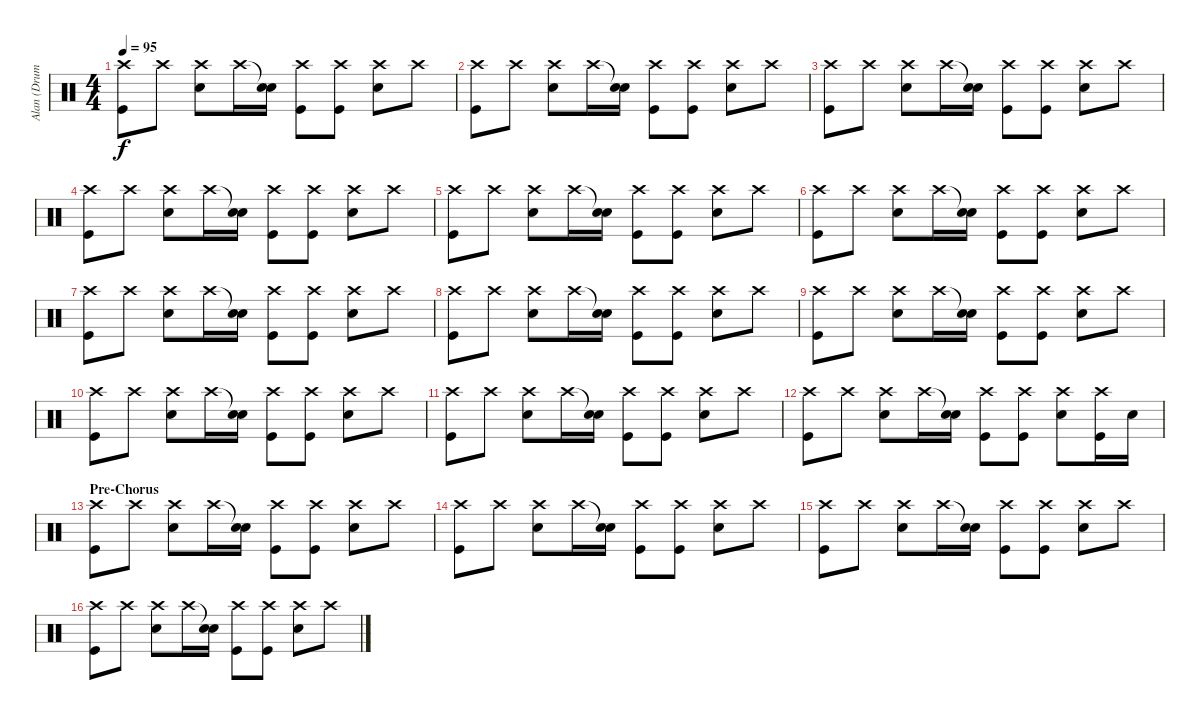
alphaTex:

\track ("Alan (Drums)" "Alan (Drum") {instrument percussion}
\staff {score}
\articulation defaults
\ts (4 4)
\tempo 95
\clef neutral
\ks c
("Crash high (hit)" "Kick (hit)").8{dy f} "Crash high (hit)".8 ("Crash high (hit)" "Electric Snare (hit)").8 "Crash high (hit)".16 ("Snare (hit)"{t} "Electric Snare (hit)").16 ("Crash high (hit)" "Kick (hit)").8 ("Crash high (hit)" "Kick (hit)").8 ("Crash high (hit)" "Electric Snare (hit)").8 "Crash high (hit)".8 |
("Crash high (hit)" "Kick (hit)").8 "Crash high (hit)".8 ("Crash high (hit)" "Electric Snare (hit)").8 "Crash high (hit)".16 ("Snare (hit)"{t} "Electric Snare (hit)").16 ("Crash high (hit)" "Kick (hit)").8 ("Crash high (hit)" "Kick (hit)").8 ("Crash high (hit)" "Electric Snare (hit)").8 "Crash high (hit)".8 |
("Crash high (hit)" "Kick (hit)").8 "Crash high (hit)".8 ("Crash high (hit)" "Electric Snare (hit)").8 "Crash high (hit)".16 ("Snare (hit)"{t} "Electric Snare (hit)").16 ("Crash high (hit)" "Kick (hit)").8 ("Crash high (hit)" "Kick (hit)").8 ("Crash high (hit)" "Electric Snare (hit)").8 "Crash high (hit)".8 |
("Crash high (hit)" "Kick (hit)").8 "Crash high (hit)".8 ("Crash high (hit)" "Electric Snare (hit)").8 "Crash high (hit)".16 ("Snare (hit)"{t} "Electric Snare (hit)").16 ("Crash high (hit)" "Kick (hit)").8 ("Crash high (hit)" "Kick (hit)").8 ("Crash high (hit)" "Electric Snare (hit)").8 "Crash high (hit)".8 |
("Crash high (hit)" "Kick (hit)").8 "Crash high (hit)".8 ("Crash high (hit)" "Electric Snare (hit)").8 "Crash high (hit)".16 ("Snare (hit)"{t} "Electric Snare (hit)").16 ("Crash high (hit)" "Kick (hit)").8 ("Crash high (hit)" "Kick (hit)").8 ("Crash high (hit)" "Electric Snare (hit)").8 "Crash high (hit)".8 |
("Crash high (hit)" "Kick (hit)").8 "Crash high (hit)".8 ("Crash high (hit)" "Electric Snare (hit)").8 "Crash high (hit)".16 ("Snare (hit)"{t} "Electric Snare (hit)").16 ("Crash high (hit)" "Kick (hit)").8 ("Crash high (hit)" "Kick (hit)").8 ("Crash high (hit)" "Electric Snare (hit)").8 "Crash high (hit)".8 |
("Crash high (hit)" "Kick (hit)").8 "Crash high (hit)".8 ("Crash high (hit)" "Electric Snare (hit)").8 "Crash high (hit)".16 ("Snare (hit)"{t} "Electric Snare (hit)").16 ("Crash high (hit)" "Kick (hit)").8 ("Crash high (hit)" "Kick (hit)").8 ("Crash high (hit)" "Electric Snare (hit)").8 "Crash high (hit)".8 |
("Crash high (hit)" "Kick (hit)").8 "Crash high (hit)".8 ("Crash high (hit)" "Electric Snare (hit)").8 "Crash high (hit)".16 ("Snare (hit)"{t} "Electric Snare (hit)").16 ("Crash high (hit)" "Kick (hit)").8 ("Crash high (hit)" "Kick (hit)").8 ("Crash high (hit)" "Electric Snare (hit)").8 "Crash high (hit)".8 |
("Crash high (hit)" "Kick (hit)").8 "Crash high (hit)".8 ("Crash high (hit)" "Electric Snare (hit)").8 "Crash high (hit)".16 ("Snare (hit)"{t} "Electric Snare (hit)").16 ("Crash high (hit)" "Kick (hit)").8 ("Crash high (hit)" "Kick (hit)").8 ("Crash high (hit)" "Electric Snare (hit)").8 "Crash high (hit)".8 |
("Crash high (hit)" "Kick (hit)").8 "Crash high (hit)".8 ("Crash high (hit)" "Electric Snare (hit)").8 "Crash high (hit)".16 ("Snare (hit)"{t} "Electric Snare (hit)").16 ("Crash high (hit)" "Kick (hit)").8 ("Crash high (hit)" "Kick (hit)").8 ("Crash high (hit)" "Electric Snare (hit)").8 "Crash high (hit)".8 |
("Crash high (hit)" "Kick (hit)").8 "Crash high (hit)".8 ("Crash high (hit)" "Electric Snare (hit)").8 "Crash high (hit)".16 ("Snare (hit)"{t} "Electric Snare (hit)").16 ("Crash high (hit)" "Kick (hit)").8 ("Crash high (hit)" "Kick (hit)").8 ("Crash high (hit)" "Electric Snare (hit)").8 "Crash high (hit)".8 |
("Crash high (hit)" "Kick (hit)").8 "Crash high (hit)".8 ("Crash high (hit)" "Electric Snare (hit)").8 "Crash high (hit)".16 ("Snare (hit)"{t} "Electric Snare (hit)").16 ("Crash high (hit)" "Kick (hit)").8 ("Crash high (hit)" "Kick (hit)").8 ("Crash high (hit)" "Electric Snare (hit)").8 ("Crash high (hit)" "Kick (hit)").16 "Electric Snare (hit)".16 |
\section ("" "Pre-Chorus")
("Crash high (hit)" "Kick (hit)").8 "Crash high (hit)".8 ("Crash high (hit)" "Electric Snare (hit)").8 "Crash high (hit)".16 ("Snare (hit)"{t} "Electric Snare (hit)").16 ("Crash high (hit)" "Kick (hit)").8 ("Crash high (hit)" "Kick (hit)").8 ("Crash high (hit)" "Electric Snare (hit)").8 "Crash high (hit)".8 |
("Crash high (hit)" "Kick (hit)").8 "Crash high (hit)".8 ("Crash high (hit)" "Electric Snare (hit)").8 "Crash high (hit)".16 ("Snare (hit)"{t} "Electric Snare (hit)").16 ("Crash high (hit)" "Kick (hit)").8 ("Crash high (hit)" "Kick (hit)").8 ("Crash high (hit)" "Electric Snare (hit)").8 "Crash high (hit)".8 |
("Crash high (hit)" "Kick (hit)").8 "Crash high (hit)".8 ("Crash high (hit)" "Electric Snare (hit)").8 "Crash high (hit)".16 ("Snare (hit)"{t} "Electric Snare (hit)").16 ("Crash high (hit)" "Kick (hit)").8 ("Crash high (hit)" "Kick (hit)").8 ("Crash high (hit)" "Electric Snare (hit)").8 "Crash high (hit)".8 |
("Crash high (hit)" "Kick (hit)").8 "Crash high (hit)".8 ("Crash high (hit)" "Electric Snare (hit)").8 "Crash high (hit)".16 ("Snare (hit)"{t} "Electric Snare (hit)").16 ("Crash high (hit)" "Kick (hit)").8 ("Crash high (hit)" "Kick (hit)").8 ("Crash high (hit)" "Electric Snare (hit)").8 "Crash high (hit)".8
